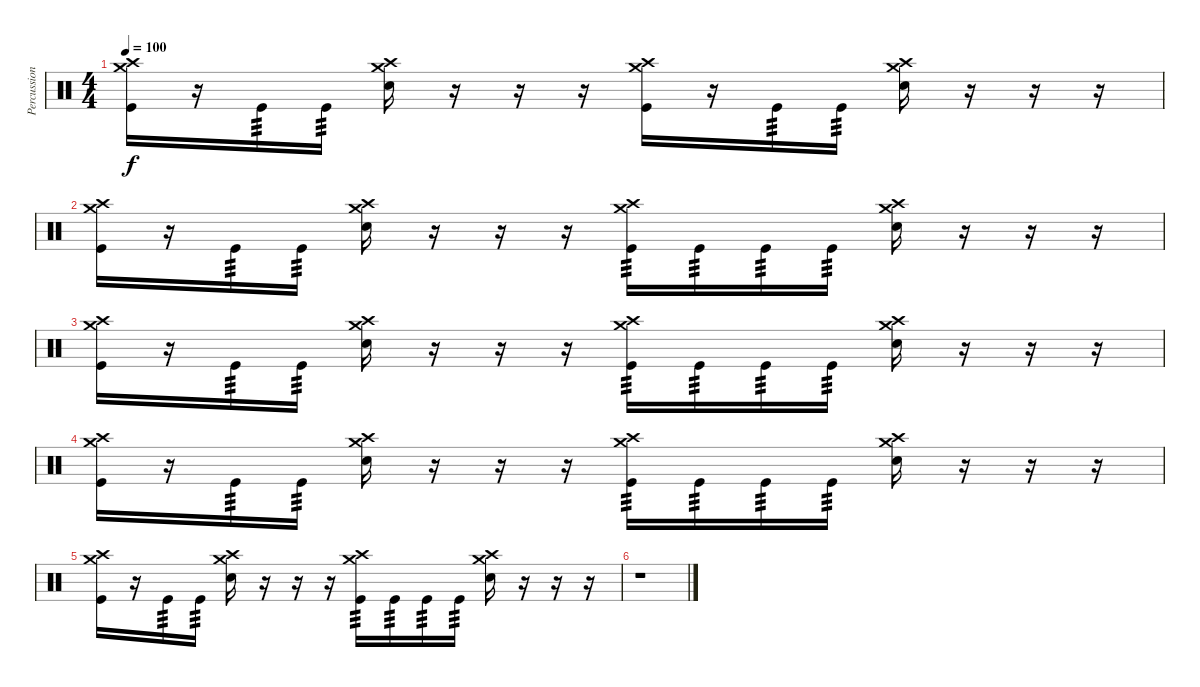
\track ("Percussion" "Percussion") {instrument percussion}
\staff {score}
\articulation defaults
\ts (4 4)
\tempo 100
\clef neutral
\ks c
("Crash medium (hit)" "Crash high (hit)" "Kick (hit)").16{dy f} r.16 "Kick (hit)".16{tp 3} "Kick (hit)".16{tp 3} ("Crash medium (hit)" "Crash high (hit)" "Snare (hit) 2").16 r.16 r.16 r.16 ("Crash medium (hit)" "Crash high (hit)" "Kick (hit)").16 r.16 "Kick (hit)".16{tp 3} "Kick (hit)".16{tp 3} ("Crash medium (hit)" "Crash high (hit)" "Snare (hit) 2").16 r.16 r.16 r.16 |
("Crash medium (hit)" "Crash high (hit)" "Kick (hit)").16 r.16 "Kick (hit)".16{tp 3} "Kick (hit)".16{tp 3} ("Crash medium (hit)" "Crash high (hit)" "Snare (hit) 2").16 r.16 r.16 r.16 ("Crash medium (hit)" "Crash high (hit)" "Kick (hit)").16{tp 3} "Kick (hit)".16{tp 3} "Kick (hit)".16{tp 3} "Kick (hit)".16{tp 3} ("Crash medium (hit)" "Crash high (hit)" "Snare (hit) 2").16 r.16 r.16 r.16 |
("Crash medium (hit)" "Crash high (hit)" "Kick (hit)").16 r.16 "Kick (hit)".16{tp 3} "Kick (hit)".16{tp 3} ("Crash medium (hit)" "Crash high (hit)" "Snare (hit) 2").16 r.16 r.16 r.16 ("Crash medium (hit)" "Crash high (hit)" "Kick (hit)").16{tp 3} "Kick (hit)".16{tp 3} "Kick (hit)".16{tp 3} "Kick (hit)".16{tp 3} ("Crash medium (hit)" "Crash high (hit)" "Snare (hit) 2").16 r.16 r.16 r.16 |
("Crash medium (hit)" "Crash high (hit)" "Kick (hit)").16 r.16 "Kick (hit)".16{tp 3} "Kick (hit)".16{tp 3} ("Crash medium (hit)" "Crash high (hit)" "Snare (hit) 2").16 r.16 r.16 r.16 ("Crash medium (hit)" "Crash high (hit)" "Kick (hit)").16{tp 3} "Kick (hit)".16{tp 3} "Kick (hit)".16{tp 3} "Kick (hit)".16{tp 3} ("Crash medium (hit)" "Crash high (hit)" "Snare (hit) 2").16 r.16 r.16 r.16 |
("Crash medium (hit)" "Crash high (hit)" "Kick (hit)").16 r.16 "Kick (hit)".16{tp 3} "Kick (hit)".16{tp 3} ("Crash medium (hit)" "Crash high (hit)" "Snare (hit) 2").16 r.16 r.16 r.16 ("Crash medium (hit)" "Crash high (hit)" "Kick (hit)").16{tp 3} "Kick (hit)".16{tp 3} "Kick (hit)".16{tp 3} "Kick (hit)".16{tp 3} ("Crash medium (hit)" "Crash high (hit)" "Snare (hit) 2").16 r.16 r.16 r.16 |
r.1
